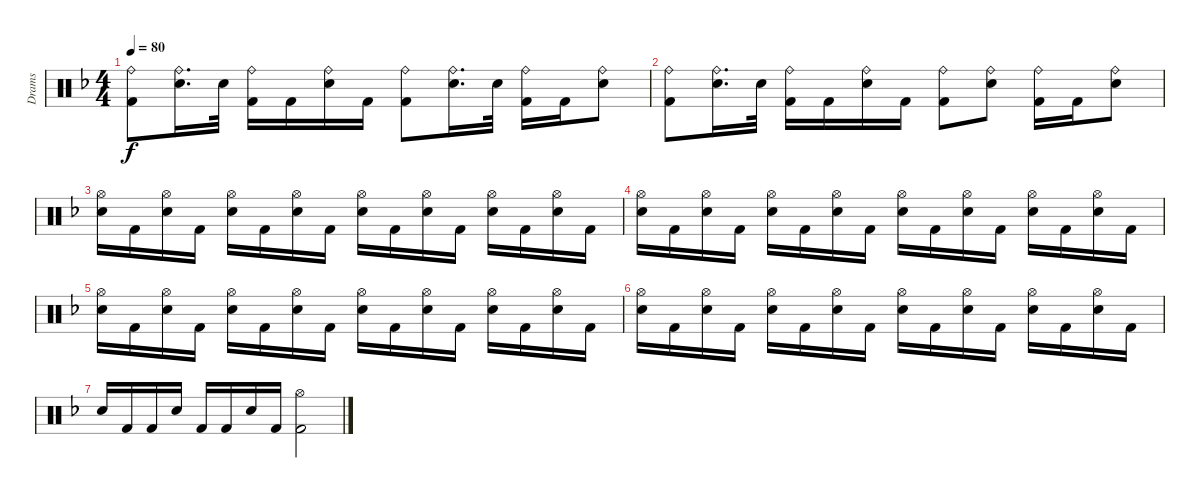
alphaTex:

\track ("Drams" "Drams") {instrument percussion}
\staff {score}
\articulation defaults
\ts (4 4)
\tempo 80
\clef neutral
\ks dminor
("Kick (hit) 2" "Ride (bell)").8{dy f} ("Ride (bell)" "Electric Snare (hit)").16{d} "Electric Snare (hit)".32 ("Ride (bell)" "Kick (hit) 2").16 "Kick (hit) 2".16 ("Ride (bell)" "Electric Snare (hit)").16 "Kick (hit) 2".16 ("Kick (hit) 2" "Ride (bell)").8 ("Electric Snare (hit)" "Ride (bell)").16{d} "Electric Snare (hit)".32 ("Kick (hit) 2" "Ride (bell)").16 "Kick (hit) 2".16 ("Electric Snare (hit)" "Ride (bell)").8 |
("Kick (hit) 2" "Ride (bell)").8 ("Ride (bell)" "Electric Snare (hit)").16{d} "Electric Snare (hit)".32 ("Ride (bell)" "Kick (hit) 2").16 "Kick (hit) 2".16 ("Ride (bell)" "Electric Snare (hit)").16 "Kick (hit) 2".16 ("Kick (hit) 2" "Ride (bell)").8 ("Ride (bell)" "Electric Snare (hit)").8 ("Kick (hit) 2" "Ride (bell)").16 "Kick (hit) 2".16 ("Electric Snare (hit)" "Ride (bell)").8 |
("Electric Snare (hit)" "Hi-Hat (open)").16 "Kick (hit) 2".16 ("Electric Snare (hit)" "Hi-Hat (open)").16 "Kick (hit) 2".16 ("Electric Snare (hit)" "Hi-Hat (open)").16 "Kick (hit) 2".16 ("Electric Snare (hit)" "Hi-Hat (open)").16 "Kick (hit) 2".16 ("Electric Snare (hit)" "Hi-Hat (open)").16 "Kick (hit) 2".16 ("Electric Snare (hit)" "Hi-Hat (open)").16 "Kick (hit) 2".16 ("Electric Snare (hit)" "Hi-Hat (open)").16 "Kick (hit) 2".16 ("Electric Snare (hit)" "Hi-Hat (open)").16 "Kick (hit) 2".16 |
("Electric Snare (hit)" "Hi-Hat (open)").16 "Kick (hit) 2".16 ("Electric Snare (hit)" "Hi-Hat (open)").16 "Kick (hit) 2".16 ("Electric Snare (hit)" "Hi-Hat (open)").16 "Kick (hit) 2".16 ("Electric Snare (hit)" "Hi-Hat (open)").16 "Kick (hit) 2".16 ("Electric Snare (hit)" "Hi-Hat (open)").16 "Kick (hit) 2".16 ("Electric Snare (hit)" "Hi-Hat (open)").16 "Kick (hit) 2".16 ("Electric Snare (hit)" "Hi-Hat (open)").16 "Kick (hit) 2".16 ("Electric Snare (hit)" "Hi-Hat (open)").16 "Kick (hit) 2".16 |
("Electric Snare (hit)" "Hi-Hat (open)").16 "Kick (hit) 2".16 ("Electric Snare (hit)" "Hi-Hat (open)").16 "Kick (hit) 2".16 ("Electric Snare (hit)" "Hi-Hat (open)").16 "Kick (hit) 2".16 ("Electric Snare (hit)" "Hi-Hat (open)").16 "Kick (hit) 2".16 ("Electric Snare (hit)" "Hi-Hat (open)").16 "Kick (hit) 2".16 ("Electric Snare (hit)" "Hi-Hat (open)").16 "Kick (hit) 2".16 ("Electric Snare (hit)" "Hi-Hat (open)").16 "Kick (hit) 2".16 ("Electric Snare (hit)" "Hi-Hat (open)").16 "Kick (hit) 2".16 |
("Electric Snare (hit)" "Hi-Hat (open)").16 "Kick (hit) 2".16 ("Electric Snare (hit)" "Hi-Hat (open)").16 "Kick (hit) 2".16 ("Electric Snare (hit)" "Hi-Hat (open)").16 "Kick (hit) 2".16 ("Electric Snare (hit)" "Hi-Hat (open)").16 "Kick (hit) 2".16 ("Electric Snare (hit)" "Hi-Hat (open)").16 "Kick (hit) 2".16 ("Electric Snare (hit)" "Hi-Hat (open)").16 "Kick (hit) 2".16 ("Electric Snare (hit)" "Hi-Hat (open)").16 "Kick (hit) 2".16 ("Electric Snare (hit)" "Hi-Hat (open)").16 "Kick (hit) 2".16 |
"Electric Snare (hit)".16 "Kick (hit) 2".16 "Kick (hit) 2".16 "Electric Snare (hit)".16 "Kick (hit) 2".16 "Kick (hit) 2".16 "Electric Snare (hit)".16 "Kick (hit) 2".16 ("Kick (hit) 2" "Hi-Hat (open)").2
